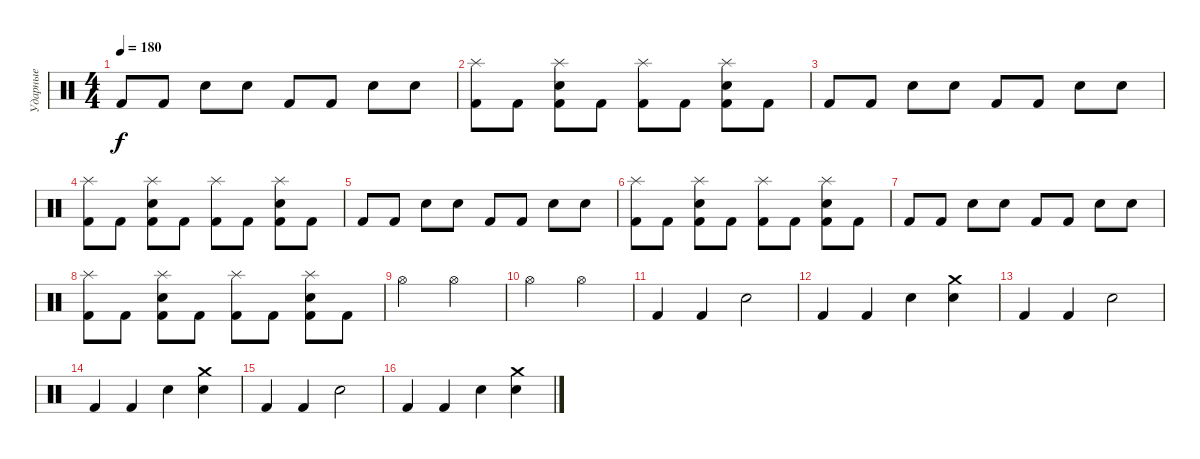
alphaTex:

\track ("Ударные" "Ударные") {instrument percussion}
\staff {score}
\articulation defaults
\ts (4 4)
\tempo 180
\clef neutral
\ks c "Kick (hit) 2".8{dy f} "Kick (hit) 2".8 "Electric Snare (hit)".8 "Electric Snare (hit)".8 "Kick (hit) 2".8 "Kick (hit) 2".8 "Electric Snare (hit)".8 "Electric Snare (hit)".8
|
("Splash (hit)" "Kick (hit) 2").8 "Kick (hit) 2".8 ("Splash (hit)" "Kick (hit) 2" "Electric Snare (hit)").8 "Kick (hit) 2".8 ("Splash (hit)" "Kick (hit) 2").8 "Kick (hit) 2".8 ("Splash (hit)" "Kick (hit) 2" "Electric Snare (hit)").8 "Kick (hit) 2".8 |
"Kick (hit) 2".8 "Kick (hit) 2".8 "Electric Snare (hit)".8 "Electric Snare (hit)".8 "Kick (hit) 2".8 "Kick (hit) 2".8 "Electric Snare (hit)".8 "Electric Snare (hit)".8 |
("Splash (hit)" "Kick (hit) 2").8 "Kick (hit) 2".8 ("Splash (hit)" "Kick (hit) 2" "Electric Snare (hit)").8 "Kick (hit) 2".8 ("Splash (hit)" "Kick (hit) 2").8 "Kick (hit) 2".8 ("Splash (hit)" "Kick (hit) 2" "Electric Snare (hit)").8 "Kick (hit) 2".8 |
"Kick (hit) 2".8 "Kick (hit) 2".8 "Electric Snare (hit)".8 "Electric Snare (hit)".8 "Kick (hit) 2".8 "Kick (hit) 2".8 "Electric Snare (hit)".8 "Electric Snare (hit)".8 |
("Splash (hit)" "Kick (hit) 2").8 "Kick (hit) 2".8 ("Splash (hit)" "Kick (hit) 2" "Electric Snare (hit)").8 "Kick (hit) 2".8 ("Splash (hit)" "Kick (hit) 2").8 "Kick (hit) 2".8 ("Splash (hit)" "Kick (hit) 2" "Electric Snare (hit)").8 "Kick (hit) 2".8 |
"Kick (hit) 2".8 "Kick (hit) 2".8 "Electric Snare (hit)".8 "Electric Snare (hit)".8 "Kick (hit) 2".8 "Kick (hit) 2".8 "Electric Snare (hit)".8 "Electric Snare (hit)".8 |
("Splash (hit)" "Kick (hit) 2").8 "Kick (hit) 2".8 ("Splash (hit)" "Kick (hit) 2" "Electric Snare (hit)").8 "Kick (hit) 2".8 ("Splash (hit)" "Kick (hit) 2").8 "Kick (hit) 2".8 ("Splash (hit)" "Kick (hit) 2" "Electric Snare (hit)").8 "Kick (hit) 2".8 |
"Hi-Hat (open)".2 "Hi-Hat (open)".2 |
"Hi-Hat (open)".2 "Hi-Hat (open)".2 |
"Kick (hit) 2".4 "Kick (hit) 2".4 "Electric Snare (hit)".2 |
"Kick (hit) 2".4 "Kick (hit) 2".4 "Electric Snare (hit)".4 ("Electric Snare (hit)" "Crash medium (hit)").4 |
"Kick (hit) 2".4 "Kick (hit) 2".4 "Electric Snare (hit)".2 |
"Kick (hit) 2".4 "Kick (hit) 2".4 "Electric Snare (hit)".4 ("Electric Snare (hit)" "Crash medium (hit)").4 |
"Kick (hit) 2".4 "Kick (hit) 2".4 "Electric Snare (hit)".2 |
"Kick (hit) 2".4 "Kick (hit) 2".4 "Electric Snare (hit)".4 ("Electric Snare (hit)" "Crash medium (hit)").4
